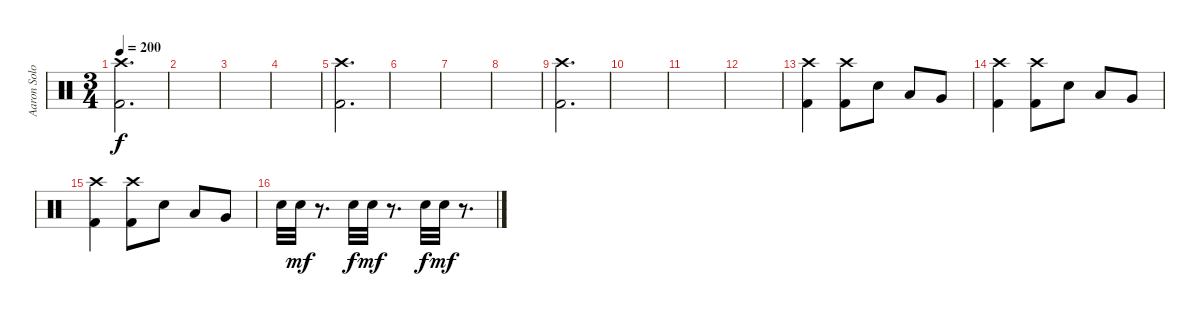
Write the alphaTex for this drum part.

\track ("Aaron Solowoniuk" "Aaron Solo") {instrument percussion}
\staff {score}
\articulation defaults
\ts (3 4)
\tempo 200
\clef neutral
\ks c
("Crash high (hit)" "Kick (hit) 2").2{d dy f} |
|
|
|
("Crash high (hit)" "Kick (hit) 2").2{d} |
|
|
|
("Crash high (hit)" "Kick (hit) 2").2{d} |
|
|
|
("Crash high (hit)" "Kick (hit) 2").4 ("Crash high (hit)" "Kick (hit) 2").8 "Snare (hit) 2".8 "Low Tom (hit)".8 "Very Low Tom (hit)".8 |
("Crash high (hit)" "Kick (hit) 2").4 ("Crash high (hit)" "Kick (hit) 2").8 "Snare (hit) 2".8 "Low Tom (hit)".8 "Very Low Tom (hit)".8 |
("Crash high (hit)" "Kick (hit) 2").4 ("Crash high (hit)" "Kick (hit) 2").8 "Snare (hit) 2".8 "Low Tom (hit)".8 "Very Low Tom (hit)".8 |
"Snare (hit) 2".32 "Snare (hit) 2".32{dy mf} r.8{d} "Snare (hit) 2".32{dy f} "Snare (hit) 2".32{dy mf} r.8{d} "Snare (hit) 2".32{dy f} "Snare (hit) 2".32{dy mf} r.8{d}
